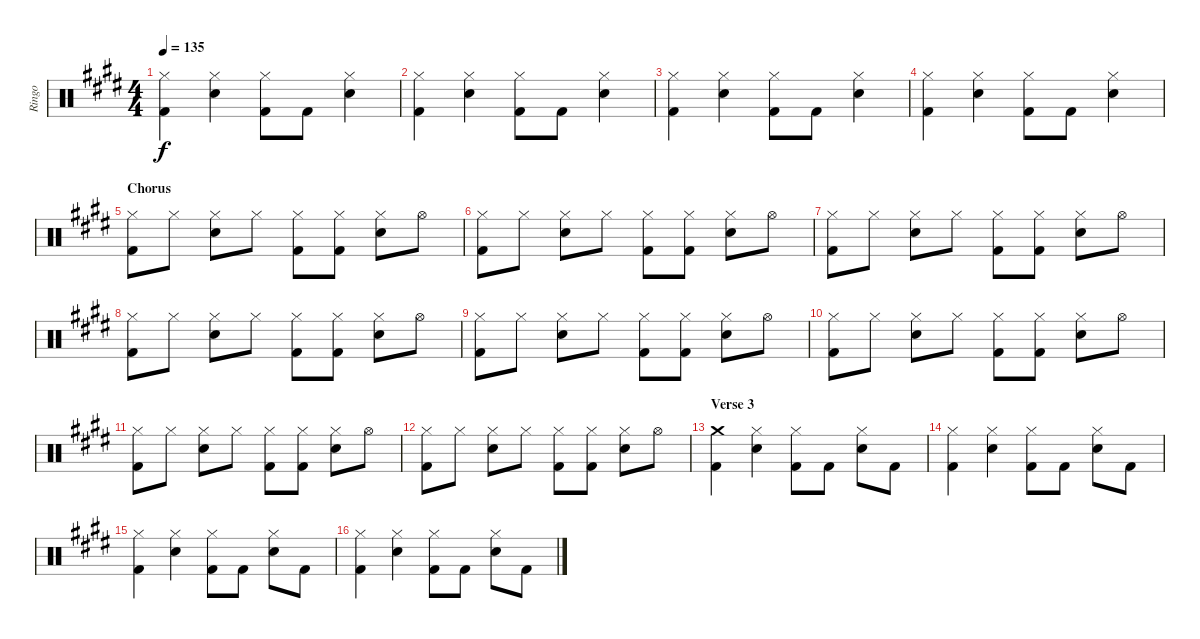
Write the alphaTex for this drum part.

\track ("Ringo" "Ringo") {instrument percussion}
\staff {score}
\articulation defaults
\ts (4 4)
\tempo 135
\clef neutral
\ks e
("Hi-Hat (closed)" "Kick (hit) 2").4{dy f} ("Hi-Hat (closed)" "Snare (hit) 2").4 ("Hi-Hat (closed)" "Kick (hit) 2").8 "Kick (hit) 2".8 ("Hi-Hat (closed)" "Snare (hit) 2").4 |
("Hi-Hat (closed)" "Kick (hit) 2").4 ("Hi-Hat (closed)" "Snare (hit) 2").4 ("Hi-Hat (closed)" "Kick (hit) 2").8 "Kick (hit) 2".8 ("Hi-Hat (closed)" "Snare (hit) 2").4 |
("Hi-Hat (closed)" "Kick (hit) 2").4 ("Hi-Hat (closed)" "Snare (hit) 2").4 ("Hi-Hat (closed)" "Kick (hit) 2").8 "Kick (hit) 2".8 ("Hi-Hat (closed)" "Snare (hit) 2").4 |
("Hi-Hat (closed)" "Kick (hit) 2").4 ("Hi-Hat (closed)" "Snare (hit) 2").4 ("Hi-Hat (closed)" "Kick (hit) 2").8 "Kick (hit) 2".8 ("Hi-Hat (closed)" "Snare (hit) 2").4 |
\section ("" "Chorus")
("Hi-Hat (closed)" "Kick (hit) 2").8 "Hi-Hat (closed)".8 ("Hi-Hat (closed)" "Snare (hit) 2").8 "Hi-Hat (closed)".8 ("Hi-Hat (closed)" "Kick (hit) 2").8 ("Hi-Hat (closed)" "Kick (hit) 2").8 ("Hi-Hat (closed)" "Snare (hit) 2").8 "Hi-Hat (open)".8 |
("Hi-Hat (closed)" "Kick (hit) 2").8 "Hi-Hat (closed)".8 ("Hi-Hat (closed)" "Snare (hit) 2").8 "Hi-Hat (closed)".8 ("Hi-Hat (closed)" "Kick (hit) 2").8 ("Hi-Hat (closed)" "Kick (hit) 2").8 ("Hi-Hat (closed)" "Snare (hit) 2").8 "Hi-Hat (open)".8 |
("Hi-Hat (closed)" "Kick (hit) 2").8 "Hi-Hat (closed)".8 ("Hi-Hat (closed)" "Snare (hit) 2").8 "Hi-Hat (closed)".8 ("Hi-Hat (closed)" "Kick (hit) 2").8 ("Hi-Hat (closed)" "Kick (hit) 2").8 ("Hi-Hat (closed)" "Snare (hit) 2").8 "Hi-Hat (open)".8 |
("Hi-Hat (closed)" "Kick (hit) 2").8 "Hi-Hat (closed)".8 ("Hi-Hat (closed)" "Snare (hit) 2").8 "Hi-Hat (closed)".8 ("Hi-Hat (closed)" "Kick (hit) 2").8 ("Hi-Hat (closed)" "Kick (hit) 2").8 ("Hi-Hat (closed)" "Snare (hit) 2").8 "Hi-Hat (open)".8 |
("Hi-Hat (closed)" "Kick (hit) 2").8 "Hi-Hat (closed)".8 ("Hi-Hat (closed)" "Snare (hit) 2").8 "Hi-Hat (closed)".8 ("Hi-Hat (closed)" "Kick (hit) 2").8 ("Hi-Hat (closed)" "Kick (hit) 2").8 ("Hi-Hat (closed)" "Snare (hit) 2").8 "Hi-Hat (open)".8 |
("Hi-Hat (closed)" "Kick (hit) 2").8 "Hi-Hat (closed)".8 ("Hi-Hat (closed)" "Snare (hit) 2").8 "Hi-Hat (closed)".8 ("Hi-Hat (closed)" "Kick (hit) 2").8 ("Hi-Hat (closed)" "Kick (hit) 2").8 ("Hi-Hat (closed)" "Snare (hit) 2").8 "Hi-Hat (open)".8 |
("Hi-Hat (closed)" "Kick (hit) 2").8 "Hi-Hat (closed)".8 ("Hi-Hat (closed)" "Snare (hit) 2").8 "Hi-Hat (closed)".8 ("Hi-Hat (closed)" "Kick (hit) 2").8 ("Hi-Hat (closed)" "Kick (hit) 2").8 ("Hi-Hat (closed)" "Snare (hit) 2").8 "Hi-Hat (open)".8 |
("Hi-Hat (closed)" "Kick (hit) 2").8 "Hi-Hat (closed)".8 ("Hi-Hat (closed)" "Snare (hit) 2").8 "Hi-Hat (closed)".8 ("Hi-Hat (closed)" "Kick (hit) 2").8 ("Hi-Hat (closed)" "Kick (hit) 2").8 ("Hi-Hat (closed)" "Snare (hit) 2").8 "Hi-Hat (open)".8 |
\section ("" "Verse 3")
("Crash medium (hit)" "Kick (hit) 2").4 ("Hi-Hat (closed)" "Snare (hit) 2").4 ("Hi-Hat (closed)" "Kick (hit) 2").8 "Kick (hit) 2".8 ("Hi-Hat (closed)" "Snare (hit) 2").8 "Kick (hit) 2".8 |
("Hi-Hat (closed)" "Kick (hit) 2").4 ("Hi-Hat (closed)" "Snare (hit) 2").4 ("Hi-Hat (closed)" "Kick (hit) 2").8 "Kick (hit) 2".8 ("Hi-Hat (closed)" "Snare (hit) 2").8 "Kick (hit) 2".8 |
("Hi-Hat (closed)" "Kick (hit) 2").4 ("Hi-Hat (closed)" "Snare (hit) 2").4 ("Hi-Hat (closed)" "Kick (hit) 2").8 "Kick (hit) 2".8 ("Hi-Hat (closed)" "Snare (hit) 2").8 "Kick (hit) 2".8 |
("Hi-Hat (closed)" "Kick (hit) 2").4 ("Hi-Hat (closed)" "Snare (hit) 2").4 ("Hi-Hat (closed)" "Kick (hit) 2").8 "Kick (hit) 2".8 ("Hi-Hat (closed)" "Snare (hit) 2").8 "Kick (hit) 2".8
